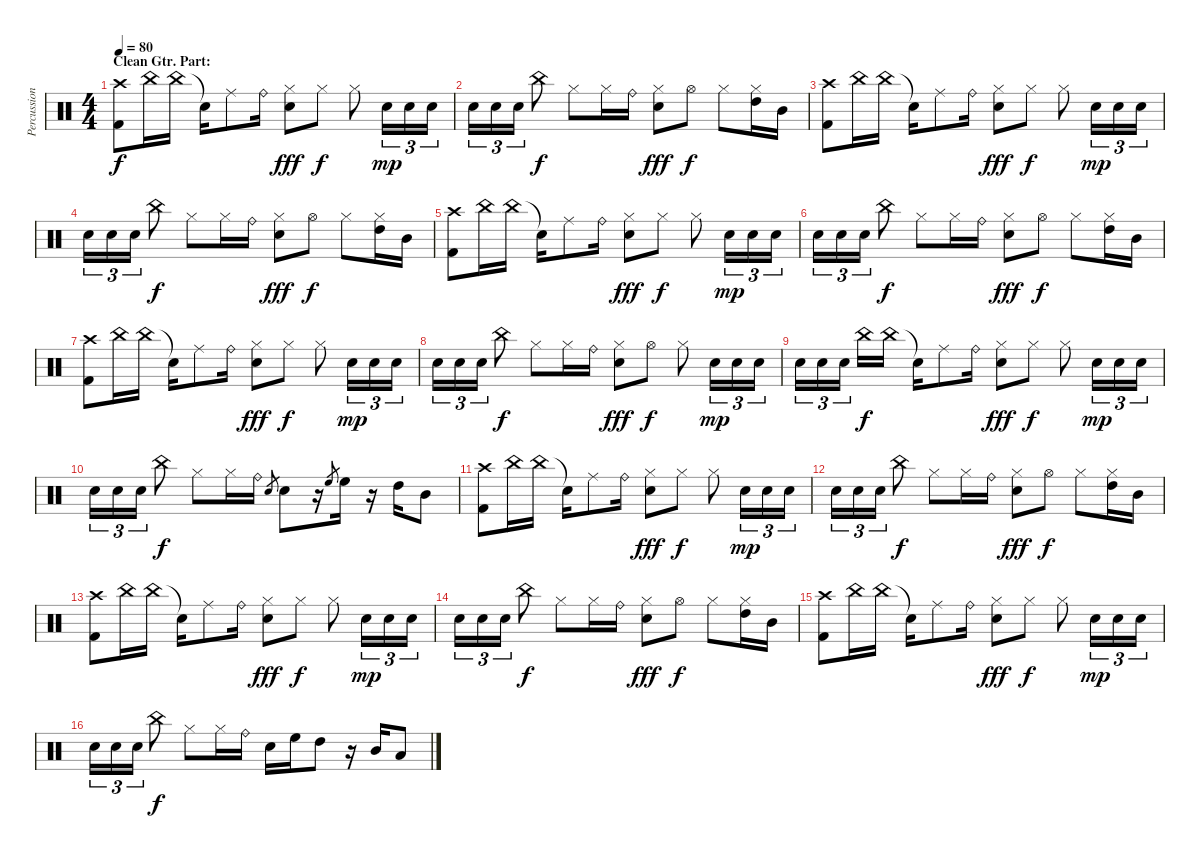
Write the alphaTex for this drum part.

\track ("Percussion" "Percussion") {instrument percussion}
\staff {score}
\articulation defaults
\ts (4 4)
\section ("" "Clean Gtr. Part:")
\tempo 80
\clef neutral
\ks c
("Crash high (hit)" "Kick (hit) 2").8{dy f} "China (hit)".16 "China (hit)".16 "Snare (hit)"{t}.16 "Ride (middle)".8 "Ride (bell)".16 ("Hi-Hat (closed)" "Electric Snare (hit)").8{dy fff} "Hi-Hat (closed)".8{dy f} "Hi-Hat (closed)".8 "Electric Snare (hit)".16{tu (3 2) dy mp} "Electric Snare (hit)".16{tu (3 2)} "Electric Snare (hit)".16{tu (3 2)} |
"Electric Snare (hit)".16{tu (3 2)} "Electric Snare (hit)".16{tu (3 2)} "Electric Snare (hit)".16{tu (3 2)} "China (hit)".8{dy f} "Hi-Hat (closed)".8 "Hi-Hat (closed)".16 "Ride (bell)".16 ("Hi-Hat (closed)" "Electric Snare (hit)").8{dy fff} "Hi-Hat (open)".8{dy f} "Hi-Hat (closed)".8 ("Hi-Hat (closed)" "High Tom (hit)").16 "Mid Tom (hit)".16 |
("Crash high (hit)" "Kick (hit) 2").8 "China (hit)".16 "China (hit)".16 "Snare (hit)"{t}.16 "Ride (middle)".8 "Ride (bell)".16 ("Hi-Hat (closed)" "Electric Snare (hit)").8{dy fff} "Hi-Hat (closed)".8{dy f} "Hi-Hat (closed)".8 "Electric Snare (hit)".16{tu (3 2) dy mp} "Electric Snare (hit)".16{tu (3 2)} "Electric Snare (hit)".16{tu (3 2)} |
"Electric Snare (hit)".16{tu (3 2)} "Electric Snare (hit)".16{tu (3 2)} "Electric Snare (hit)".16{tu (3 2)} "China (hit)".8{dy f} "Hi-Hat (closed)".8 "Hi-Hat (closed)".16 "Ride (bell)".16 ("Hi-Hat (closed)" "Electric Snare (hit)").8{dy fff} "Hi-Hat (open)".8{dy f} "Hi-Hat (closed)".8 ("Hi-Hat (closed)" "High Tom (hit)").16 "Mid Tom (hit)".16 |
("Crash high (hit)" "Kick (hit) 2").8 "China (hit)".16 "China (hit)".16 "Snare (hit)"{t}.16 "Ride (middle)".8 "Ride (bell)".16 ("Hi-Hat (closed)" "Electric Snare (hit)").8{dy fff} "Hi-Hat (closed)".8{dy f} "Hi-Hat (closed)".8 "Electric Snare (hit)".16{tu (3 2) dy mp} "Electric Snare (hit)".16{tu (3 2)} "Electric Snare (hit)".16{tu (3 2)} |
"Electric Snare (hit)".16{tu (3 2)} "Electric Snare (hit)".16{tu (3 2)} "Electric Snare (hit)".16{tu (3 2)} "China (hit)".8{dy f} "Hi-Hat (closed)".8 "Hi-Hat (closed)".16 "Ride (bell)".16 ("Hi-Hat (closed)" "Electric Snare (hit)").8{dy fff} "Hi-Hat (open)".8{dy f} "Hi-Hat (closed)".8 ("Hi-Hat (closed)" "High Tom (hit)").16 "Mid Tom (hit)".16 |
("Crash high (hit)" "Kick (hit) 2").8 "China (hit)".16 "China (hit)".16 "Snare (hit)"{t}.16 "Ride (middle)".8 "Ride (bell)".16 ("Hi-Hat (closed)" "Electric Snare (hit)").8{dy fff} "Hi-Hat (closed)".8{dy f} "Hi-Hat (closed)".8 "Electric Snare (hit)".16{tu (3 2) dy mp} "Electric Snare (hit)".16{tu (3 2)} "Electric Snare (hit)".16{tu (3 2)} |
"Electric Snare (hit)".16{tu (3 2)} "Electric Snare (hit)".16{tu (3 2)} "Electric Snare (hit)".16{tu (3 2)} "China (hit)".8{dy f} "Hi-Hat (closed)".8 "Hi-Hat (closed)".16 "Ride (bell)".16 ("Hi-Hat (closed)" "Electric Snare (hit)").8{dy fff} "Hi-Hat (open)".8{dy f} "Hi-Hat (closed)".8 "Electric Snare (hit)".16{tu (3 2) dy mp} "Electric Snare (hit)".16{tu (3 2)} "Electric Snare (hit)".16{tu (3 2)} |
"Electric Snare (hit)".16{tu (3 2)} "Electric Snare (hit)".16{tu (3 2)} "Electric Snare (hit)".16{tu (3 2)} "China (hit)".16{dy f} "China (hit)".16 "Snare (hit)"{t}.16 "Ride (middle)".8 "Ride (bell)".16 ("Hi-Hat (closed)" "Electric Snare (hit)").8{dy fff} "Hi-Hat (closed)".8{dy f} "Hi-Hat (closed)".8 "Electric Snare (hit)".16{tu (3 2) dy mp} "Electric Snare (hit)".16{tu (3 2)} "Electric Snare (hit)".16{tu (3 2)} |
"Electric Snare (hit)".16{tu (3 2)} "Electric Snare (hit)".16{tu (3 2)} "Electric Snare (hit)".16{tu (3 2)} "China (hit)".8{dy f} "Hi-Hat (closed)".8 "Hi-Hat (closed)".16 "Ride (bell)".16 "Electric Snare (hit)".8{gr} "Electric Snare (hit)".8 r.16 "High Floor Tom (hit)".8{gr} "High Floor Tom (hit)".16 r.16 "High Tom (hit)".16 "Mid Tom (hit)".8 |
("Crash high (hit)" "Kick (hit) 2").8 "China (hit)".16 "China (hit)".16 "Snare (hit)"{t}.16 "Ride (middle)".8 "Ride (bell)".16 ("Hi-Hat (closed)" "Electric Snare (hit)").8{dy fff} "Hi-Hat (closed)".8{dy f} "Hi-Hat (closed)".8 "Electric Snare (hit)".16{tu (3 2) dy mp} "Electric Snare (hit)".16{tu (3 2)} "Electric Snare (hit)".16{tu (3 2)} |
"Electric Snare (hit)".16{tu (3 2)} "Electric Snare (hit)".16{tu (3 2)} "Electric Snare (hit)".16{tu (3 2)} "China (hit)".8{dy f} "Hi-Hat (closed)".8 "Hi-Hat (closed)".16 "Ride (bell)".16 ("Hi-Hat (closed)" "Electric Snare (hit)").8{dy fff} "Hi-Hat (open)".8{dy f} "Hi-Hat (closed)".8 ("Hi-Hat (closed)" "High Tom (hit)").16 "Mid Tom (hit)".16 |
("Crash high (hit)" "Kick (hit) 2").8 "China (hit)".16 "China (hit)".16 "Snare (hit)"{t}.16 "Ride (middle)".8 "Ride (bell)".16 ("Hi-Hat (closed)" "Electric Snare (hit)").8{dy fff} "Hi-Hat (closed)".8{dy f} "Hi-Hat (closed)".8 "Electric Snare (hit)".16{tu (3 2) dy mp} "Electric Snare (hit)".16{tu (3 2)} "Electric Snare (hit)".16{tu (3 2)} |
"Electric Snare (hit)".16{tu (3 2)} "Electric Snare (hit)".16{tu (3 2)} "Electric Snare (hit)".16{tu (3 2)} "China (hit)".8{dy f} "Hi-Hat (closed)".8 "Hi-Hat (closed)".16 "Ride (bell)".16 ("Hi-Hat (closed)" "Electric Snare (hit)").8{dy fff} "Hi-Hat (open)".8{dy f} "Hi-Hat (closed)".8 ("Hi-Hat (closed)" "High Tom (hit)").16 "Mid Tom (hit)".16 |
("Crash high (hit)" "Kick (hit) 2").8 "China (hit)".16 "China (hit)".16 "Snare (hit)"{t}.16 "Ride (middle)".8 "Ride (bell)".16 ("Hi-Hat (closed)" "Electric Snare (hit)").8{dy fff} "Hi-Hat (closed)".8{dy f} "Hi-Hat (closed)".8 "Electric Snare (hit)".16{tu (3 2) dy mp} "Electric Snare (hit)".16{tu (3 2)} "Electric Snare (hit)".16{tu (3 2)} |
"Electric Snare (hit)".16{tu (3 2)} "Electric Snare (hit)".16{tu (3 2)} "Electric Snare (hit)".16{tu (3 2)} "China (hit)".8{dy f} "Hi-Hat (closed)".8 "Hi-Hat (closed)".16 "Ride (bell)".16 "Electric Snare (hit)".16 "High Floor Tom (hit)".16 "High Tom (hit)".8 r.16 "Mid Tom (hit)".16 "Low Tom (hit)".8
